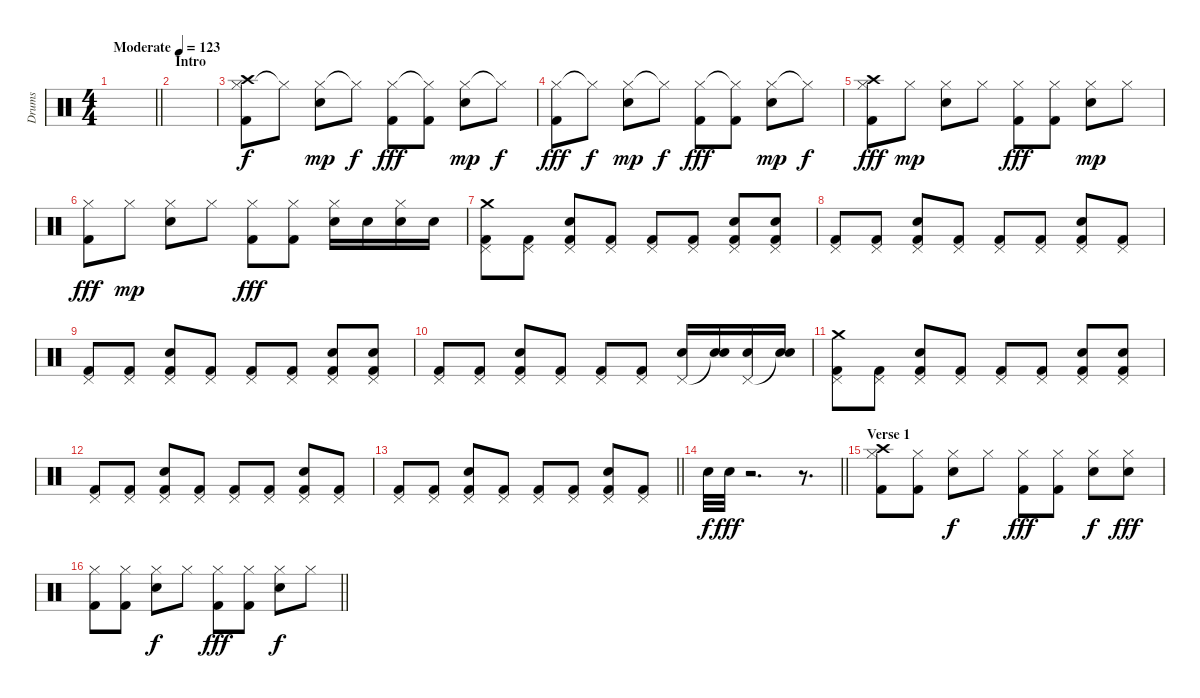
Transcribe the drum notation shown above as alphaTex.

\track ("Drums" "Drums") {instrument percussion}
\staff {score}
\articulation defaults
\ts (4 4)
\tempo (123 "Moderate")
\clef neutral
\barLineRight lightlight
\ks c
|
\section ("" "Intro")
|
("Hi-Hat (closed)" "Kick (hit) 2" "Crash high (hit)").8 "Hi-Hat (closed)"{t}.8{dy f} ("Hi-Hat (closed)" "Snare (hit) 2").8{dy mp} "Hi-Hat (closed)"{t}.8{dy f} ("Hi-Hat (closed)" "Kick (hit) 2").8{dy fff} ("Hi-Hat (closed)"{t} "Kick (hit) 2").8 ("Hi-Hat (closed)" "Snare (hit) 2").8{dy mp} "Hi-Hat (closed)"{t}.8{dy f} |
("Hi-Hat (closed)" "Kick (hit) 2").8{dy fff} "Hi-Hat (closed)"{t}.8{dy f} ("Hi-Hat (closed)" "Snare (hit) 2").8{dy mp} "Hi-Hat (closed)"{t}.8{dy f} ("Hi-Hat (closed)" "Kick (hit) 2").8{dy fff} ("Hi-Hat (closed)"{t} "Kick (hit) 2").8 ("Hi-Hat (closed)" "Snare (hit) 2").8{dy mp} "Hi-Hat (closed)"{t}.8{dy f} |
("Hi-Hat (closed)" "Kick (hit) 2" "Crash high (hit)").8{dy fff} "Hi-Hat (closed)".8{dy mp} ("Hi-Hat (closed)" "Snare (hit) 2").8 "Hi-Hat (closed)".8 ("Hi-Hat (closed)" "Kick (hit) 2").8{dy fff} ("Hi-Hat (closed)" "Kick (hit) 2").8 ("Hi-Hat (closed)" "Snare (hit) 2").8{dy mp} "Hi-Hat (closed)".8 |
("Hi-Hat (closed)" "Kick (hit) 2").8{dy fff} "Hi-Hat (closed)".8{dy mp} ("Hi-Hat (closed)" "Snare (hit) 2").8 "Hi-Hat (closed)".8 ("Hi-Hat (closed)" "Kick (hit) 2").8{dy fff} ("Hi-Hat (closed)" "Kick (hit) 2").8 ("Hi-Hat (closed)" "Snare (hit) 2").16 "Snare (hit) 2".16 ("Hi-Hat (closed)" "Snare (hit) 2").16 "Snare (hit) 2".16 |
("Pedal Hi-Hat (hit)" "Kick (hit) 2" "Crash medium (hit)").8 ("Pedal Hi-Hat (hit)" "Kick (hit) 2").8 ("Pedal Hi-Hat (hit)" "Kick (hit) 2" "Snare (hit) 2").8 ("Pedal Hi-Hat (hit)" "Kick (hit) 2").8 ("Pedal Hi-Hat (hit)" "Kick (hit) 2").8 ("Pedal Hi-Hat (hit)" "Kick (hit) 2").8 ("Pedal Hi-Hat (hit)" "Kick (hit) 2" "Snare (hit) 2").8 ("Pedal Hi-Hat (hit)" "Kick (hit) 2" "Snare (hit) 2").8 |
("Pedal Hi-Hat (hit)" "Kick (hit) 2").8 ("Pedal Hi-Hat (hit)" "Kick (hit) 2").8 ("Pedal Hi-Hat (hit)" "Kick (hit) 2" "Snare (hit) 2").8 ("Pedal Hi-Hat (hit)" "Kick (hit) 2").8 ("Pedal Hi-Hat (hit)" "Kick (hit) 2").8 ("Pedal Hi-Hat (hit)" "Kick (hit) 2").8 ("Pedal Hi-Hat (hit)" "Kick (hit) 2" "Snare (hit) 2").8 ("Pedal Hi-Hat (hit)" "Kick (hit) 2").8 |
("Pedal Hi-Hat (hit)" "Kick (hit) 2").8 ("Pedal Hi-Hat (hit)" "Kick (hit) 2").8 ("Pedal Hi-Hat (hit)" "Kick (hit) 2" "Snare (hit) 2").8 ("Pedal Hi-Hat (hit)" "Kick (hit) 2").8 ("Pedal Hi-Hat (hit)" "Kick (hit) 2").8 ("Pedal Hi-Hat (hit)" "Kick (hit) 2").8 ("Pedal Hi-Hat (hit)" "Kick (hit) 2" "Snare (hit) 2").8 ("Pedal Hi-Hat (hit)" "Kick (hit) 2" "Snare (hit) 2").8 |
("Pedal Hi-Hat (hit)" "Kick (hit) 2").8 ("Pedal Hi-Hat (hit)" "Kick (hit) 2").8 ("Pedal Hi-Hat (hit)" "Kick (hit) 2" "Snare (hit) 2").8 ("Pedal Hi-Hat (hit)" "Kick (hit) 2").8 ("Pedal Hi-Hat (hit)" "Kick (hit) 2").8 ("Pedal Hi-Hat (hit)" "Kick (hit) 2").8 ("Pedal Hi-Hat (hit)" "Snare (hit) 2").16 ("Snare (hit)"{t} "Snare (hit) 2").16 ("Pedal Hi-Hat (hit)" "Snare (hit) 2").16 ("Snare (hit)"{t} "Snare (hit) 2").16 |
("Pedal Hi-Hat (hit)" "Kick (hit) 2" "Crash medium (hit)").8 ("Pedal Hi-Hat (hit)" "Kick (hit) 2").8 ("Pedal Hi-Hat (hit)" "Kick (hit) 2" "Snare (hit) 2").8 ("Pedal Hi-Hat (hit)" "Kick (hit) 2").8 ("Pedal Hi-Hat (hit)" "Kick (hit) 2").8 ("Pedal Hi-Hat (hit)" "Kick (hit) 2").8 ("Pedal Hi-Hat (hit)" "Kick (hit) 2" "Snare (hit) 2").8 ("Pedal Hi-Hat (hit)" "Kick (hit) 2" "Snare (hit) 2").8 |
("Pedal Hi-Hat (hit)" "Kick (hit) 2").8 ("Pedal Hi-Hat (hit)" "Kick (hit) 2").8 ("Pedal Hi-Hat (hit)" "Kick (hit) 2" "Snare (hit) 2").8 ("Pedal Hi-Hat (hit)" "Kick (hit) 2").8 ("Pedal Hi-Hat (hit)" "Kick (hit) 2").8 ("Pedal Hi-Hat (hit)" "Kick (hit) 2").8 ("Pedal Hi-Hat (hit)" "Kick (hit) 2" "Snare (hit) 2").8 ("Pedal Hi-Hat (hit)" "Kick (hit) 2").8 |
\barLineRight lightlight
("Pedal Hi-Hat (hit)" "Kick (hit) 2").8 ("Pedal Hi-Hat (hit)" "Kick (hit) 2").8 ("Pedal Hi-Hat (hit)" "Kick (hit) 2" "Snare (hit) 2").8 ("Pedal Hi-Hat (hit)" "Kick (hit) 2").8 ("Pedal Hi-Hat (hit)" "Kick (hit) 2").8 ("Pedal Hi-Hat (hit)" "Kick (hit) 2").8 ("Pedal Hi-Hat (hit)" "Kick (hit) 2" "Snare (hit) 2").8 ("Pedal Hi-Hat (hit)" "Kick (hit) 2").8 |
\barLineRight lightlight "Snare (hit) 2".32{dy f} "Snare (hit) 2".32{dy fff}
r.2{d} r.8{d} |
\section ("" "Verse 1")
("Hi-Hat (closed)" "Kick (hit) 2" "Crash high (hit)").8 ("Hi-Hat (closed)" "Kick (hit) 2").8 ("Hi-Hat (closed)" "Snare (hit) 2").8{dy f} "Hi-Hat (closed)".8 ("Hi-Hat (closed)" "Kick (hit) 2").8{dy fff} ("Hi-Hat (closed)" "Kick (hit) 2").8 ("Hi-Hat (closed)" "Snare (hit) 2").8{dy f} ("Hi-Hat (closed)" "Snare (hit) 2").8{dy fff} |
\barLineRight lightlight
("Hi-Hat (closed)" "Kick (hit) 2").8 ("Hi-Hat (closed)" "Kick (hit) 2").8 ("Hi-Hat (closed)" "Snare (hit) 2").8{dy f} "Hi-Hat (closed)".8 ("Hi-Hat (closed)" "Kick (hit) 2").8{dy fff} ("Hi-Hat (closed)" "Kick (hit) 2").8 ("Hi-Hat (closed)" "Snare (hit) 2").8{dy f} "Hi-Hat (closed)".8
